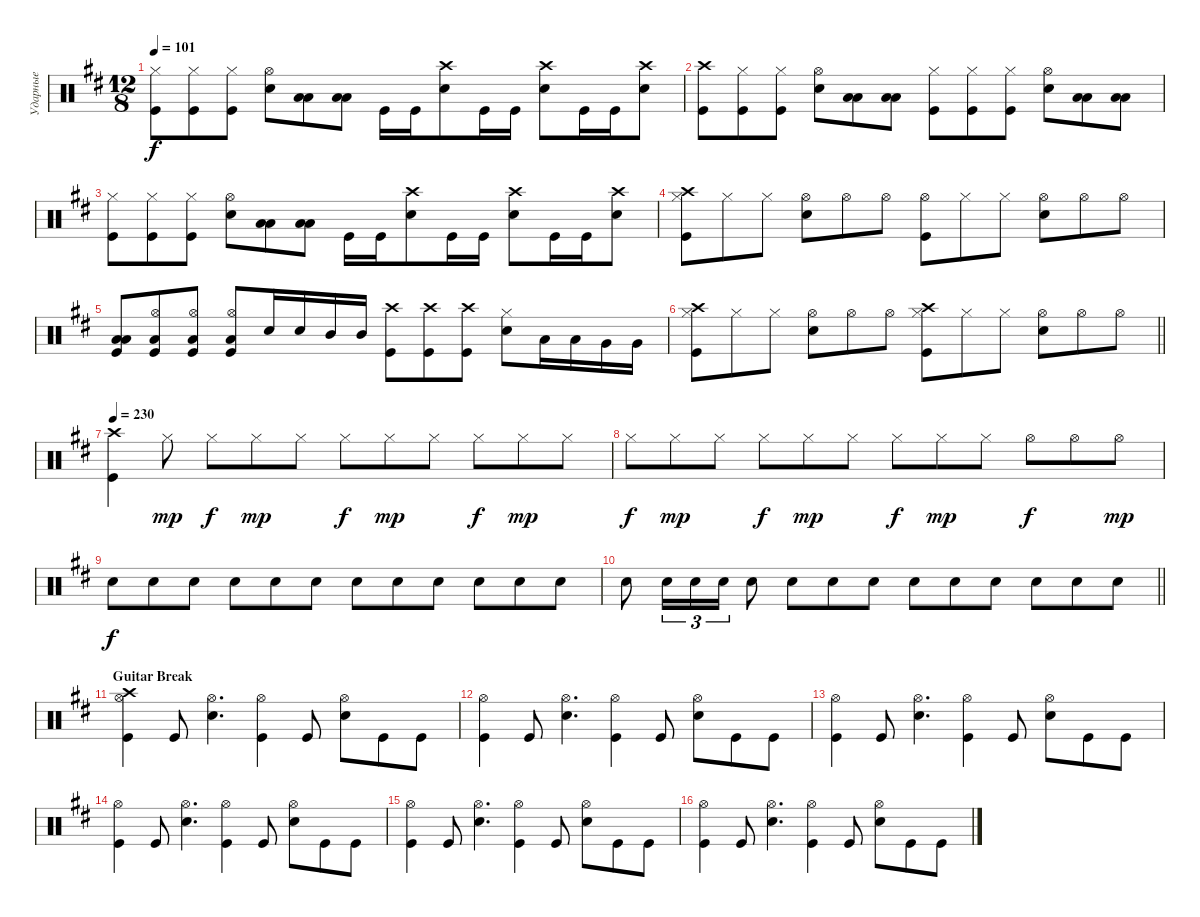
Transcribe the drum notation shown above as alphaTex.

\track ("Ударные" "Ударные") {instrument percussion}
\staff {score}
\articulation defaults
\ts (12 8)
\tempo 101
\clef neutral
\ks bminor
("Kick (hit)" "Hi-Hat (closed)").8{dy f} ("Kick (hit)" "Hi-Hat (closed)").8 ("Kick (hit)" "Hi-Hat (closed)").8 ("Snare (hit) 2" "Hi-Hat (open)").8 ("Low Tom (hit)" "Low Tom (hit)").8{bd 240} ("Low Tom (hit)" "Low Tom (hit)").8{bd 240} "Kick (hit)".16 "Kick (hit)".16 ("Snare (hit) 2" "Crash high (hit)").8 "Kick (hit)".16 "Kick (hit)".16 ("Snare (hit) 2" "Crash high (hit)").8 "Kick (hit)".16 "Kick (hit)".16 ("Snare (hit) 2" "Crash high (hit)").8 |
("Kick (hit)" "Crash high (hit)").8 ("Kick (hit)" "Hi-Hat (closed)").8 ("Kick (hit)" "Hi-Hat (closed)").8 ("Snare (hit) 2" "Hi-Hat (open)").8 ("Low Tom (hit)" "Low Tom (hit)").8{bd 240} ("Low Tom (hit)" "Low Tom (hit)").8{bd 240} ("Kick (hit)" "Hi-Hat (closed)").8 ("Kick (hit)" "Hi-Hat (closed)").8 ("Kick (hit)" "Hi-Hat (closed)").8 ("Snare (hit) 2" "Hi-Hat (open)").8 ("Low Tom (hit)" "Low Tom (hit)").8{bd 240} ("Low Tom (hit)" "Low Tom (hit)").8{bd 240} |
("Kick (hit)" "Hi-Hat (closed)").8 ("Kick (hit)" "Hi-Hat (closed)").8 ("Kick (hit)" "Hi-Hat (closed)").8 ("Snare (hit) 2" "Hi-Hat (open)").8 ("Low Tom (hit)" "Low Tom (hit)").8{bd 240} ("Low Tom (hit)" "Low Tom (hit)").8{bd 240} "Kick (hit)".16 "Kick (hit)".16 ("Snare (hit) 2" "Crash high (hit)").8 "Kick (hit)".16 "Kick (hit)".16 ("Snare (hit) 2" "Crash high (hit)").8 "Kick (hit)".16 "Kick (hit)".16 ("Snare (hit) 2" "Crash high (hit)").8 |
("Crash high (hit)" "Kick (hit)" "Hi-Hat (closed)").8 "Hi-Hat (closed)".8 "Hi-Hat (closed)".8 ("Hi-Hat (open)" "Snare (hit) 2").8 "Hi-Hat (open)".8 "Hi-Hat (open)".8 ("Hi-Hat (open)" "Kick (hit)").8 "Hi-Hat (closed)".8 "Hi-Hat (closed)".8 ("Hi-Hat (open)" "Snare (hit) 2").8 "Hi-Hat (open)".8 "Hi-Hat (open)".8 |
("Kick (hit)" "Low Tom (hit)" "Low Tom (hit)").8{bd 240} ("Kick (hit)" "Low Tom (hit)" "Hi-Hat (open)").8 ("Kick (hit)" "Hi-Hat (open)" "Low Tom (hit)").8 ("Kick (hit)" "Low Tom (hit)" "Hi-Hat (open)").8 "Snare (hit) 2".16 "Snare (hit) 2".16 "Mid Tom (hit)".16 "Mid Tom (hit)".16 ("Kick (hit)" "Crash high (hit)").8 ("Crash high (hit)" "Kick (hit)").8 ("Crash high (hit)" "Kick (hit)").8 ("Snare (hit) 2" "Hi-Hat (closed)").8 "Low Tom (hit)".16 "Low Tom (hit)".16 "Very Low Tom (hit)".16 "Very Low Tom (hit)".16 |
\barLineRight lightlight
("Crash high (hit)" "Kick (hit)" "Hi-Hat (closed)").8 "Hi-Hat (closed)".8 "Hi-Hat (closed)".8 ("Hi-Hat (open)" "Snare (hit) 2").8 "Hi-Hat (open)".8 "Hi-Hat (open)".8 ("Crash high (hit)" "Kick (hit)" "Hi-Hat (closed)").8 "Hi-Hat (closed)".8 "Hi-Hat (closed)".8 ("Hi-Hat (open)" "Snare (hit) 2").8 "Hi-Hat (open)".8 "Hi-Hat (open)".8 |
\tempo 230
("Kick (hit)" "Crash high (hit)").4 "Hi-Hat (closed)".8{dy mp} "Hi-Hat (closed)".8{dy f} "Hi-Hat (closed)".8{dy mp} "Hi-Hat (closed)".8 "Hi-Hat (closed)".8{dy f} "Hi-Hat (closed)".8{dy mp} "Hi-Hat (closed)".8 "Hi-Hat (closed)".8{dy f} "Hi-Hat (closed)".8{dy mp} "Hi-Hat (closed)".8 |
"Hi-Hat (closed)".8{dy f} "Hi-Hat (closed)".8{dy mp} "Hi-Hat (closed)".8 "Hi-Hat (closed)".8{dy f} "Hi-Hat (closed)".8{dy mp} "Hi-Hat (closed)".8 "Hi-Hat (closed)".8{dy f} "Hi-Hat (closed)".8{dy mp} "Hi-Hat (closed)".8 "Hi-Hat (open)".8{dy f} "Hi-Hat (open)".8 "Hi-Hat (open)".8{dy mp} |
"Snare (hit) 2".8{dy f} "Snare (hit) 2".8 "Snare (hit) 2".8 "Snare (hit) 2".8 "Snare (hit) 2".8 "Snare (hit) 2".8 "Snare (hit) 2".8 "Snare (hit) 2".8 "Snare (hit) 2".8 "Snare (hit) 2".8 "Snare (hit) 2".8 "Snare (hit) 2".8 |
\barLineRight lightlight "Snare (hit) 2".8 "Snare (hit) 2".16{tu (3 2)} "Snare (hit) 2".16{tu (3 2)} "Snare (hit) 2".16{tu (3 2)} "Snare (hit) 2".8 "Snare (hit) 2".8 "Snare (hit) 2".8 "Snare (hit) 2".8 "Snare (hit) 2".8 "Snare (hit) 2".8 "Snare (hit) 2".8 "Snare (hit) 2".8 "Snare (hit) 2".8 "Snare (hit) 2".8
|
\section ("" "Guitar Break")
("Kick (hit)" "Hi-Hat (open)" "Crash high (hit)").4 "Kick (hit)".8 ("Snare (hit) 2" "Hi-Hat (open)").4{d} ("Kick (hit)" "Hi-Hat (open)").4 "Kick (hit)".8 ("Snare (hit) 2" "Hi-Hat (open)").8 "Kick (hit)".8 "Kick (hit)".8 |
("Kick (hit)" "Hi-Hat (open)").4 "Kick (hit)".8 ("Snare (hit) 2" "Hi-Hat (open)").4{d} ("Kick (hit)" "Hi-Hat (open)").4 "Kick (hit)".8 ("Snare (hit) 2" "Hi-Hat (open)").8 "Kick (hit)".8 "Kick (hit)".8 |
("Kick (hit)" "Hi-Hat (open)").4 "Kick (hit)".8 ("Snare (hit) 2" "Hi-Hat (open)").4{d} ("Kick (hit)" "Hi-Hat (open)").4 "Kick (hit)".8 ("Snare (hit) 2" "Hi-Hat (open)").8 "Kick (hit)".8 "Kick (hit)".8 |
("Kick (hit)" "Hi-Hat (open)").4 "Kick (hit)".8 ("Snare (hit) 2" "Hi-Hat (open)").4{d} ("Kick (hit)" "Hi-Hat (open)").4 "Kick (hit)".8 ("Snare (hit) 2" "Hi-Hat (open)").8 "Kick (hit)".8 "Kick (hit)".8 |
("Kick (hit)" "Hi-Hat (open)").4 "Kick (hit)".8 ("Snare (hit) 2" "Hi-Hat (open)").4{d} ("Kick (hit)" "Hi-Hat (open)").4 "Kick (hit)".8 ("Snare (hit) 2" "Hi-Hat (open)").8 "Kick (hit)".8 "Kick (hit)".8 |
("Kick (hit)" "Hi-Hat (open)").4 "Kick (hit)".8 ("Snare (hit) 2" "Hi-Hat (open)").4{d} ("Kick (hit)" "Hi-Hat (open)").4 "Kick (hit)".8 ("Snare (hit) 2" "Hi-Hat (open)").8 "Kick (hit)".8 "Kick (hit)".8
